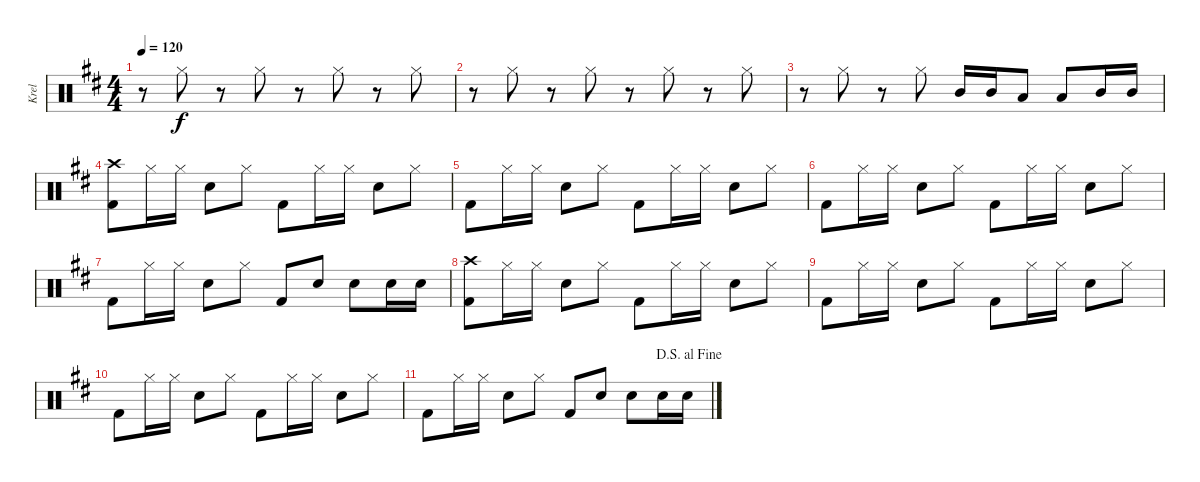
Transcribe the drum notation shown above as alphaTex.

\track ("Krel" "Krel") {instrument percussion}
\staff {score}
\articulation defaults
\ts (4 4)
\tempo 120
\clef neutral
\ks d
r.8{dy f} "Hi-Hat (closed)".8 r.8 "Hi-Hat (closed)".8 r.8 "Hi-Hat (closed)".8 r.8 "Hi-Hat (closed)".8 |
r.8 "Hi-Hat (closed)".8 r.8 "Hi-Hat (closed)".8 r.8 "Hi-Hat (closed)".8 r.8 "Hi-Hat (closed)".8 |
r.8 "Hi-Hat (closed)".8 r.8 "Hi-Hat (closed)".8 "Mid Tom (hit)".16 "Mid Tom (hit)".16 "Low Tom (hit)".8 "Low Tom (hit)".8 "Mid Tom (hit)".16 "Mid Tom (hit)".16 |
("Crash high (hit)" "Kick (hit) 2").8 "Hi-Hat (closed)".16 "Hi-Hat (closed)".16 "Snare (hit) 2".8 "Hi-Hat (closed)".8 "Kick (hit) 2".8 "Hi-Hat (closed)".16 "Hi-Hat (closed)".16 "Snare (hit) 2".8 "Hi-Hat (closed)".8 |
"Kick (hit) 2".8 "Hi-Hat (closed)".16 "Hi-Hat (closed)".16 "Snare (hit) 2".8 "Hi-Hat (closed)".8 "Kick (hit) 2".8 "Hi-Hat (closed)".16 "Hi-Hat (closed)".16 "Snare (hit) 2".8 "Hi-Hat (closed)".8 |
"Kick (hit) 2".8 "Hi-Hat (closed)".16 "Hi-Hat (closed)".16 "Snare (hit) 2".8 "Hi-Hat (closed)".8 "Kick (hit) 2".8 "Hi-Hat (closed)".16 "Hi-Hat (closed)".16 "Snare (hit) 2".8 "Hi-Hat (closed)".8 |
"Kick (hit) 2".8 "Hi-Hat (closed)".16 "Hi-Hat (closed)".16 "Snare (hit) 2".8 "Hi-Hat (closed)".8 "Kick (hit) 2".8 "Snare (hit) 2".8 "Snare (hit) 2".8 "Snare (hit) 2".16 "Snare (hit) 2".16 |
("Crash high (hit)" "Kick (hit) 2").8 "Hi-Hat (closed)".16 "Hi-Hat (closed)".16 "Snare (hit) 2".8 "Hi-Hat (closed)".8 "Kick (hit) 2".8 "Hi-Hat (closed)".16 "Hi-Hat (closed)".16 "Snare (hit) 2".8 "Hi-Hat (closed)".8 |
"Kick (hit) 2".8 "Hi-Hat (closed)".16 "Hi-Hat (closed)".16 "Snare (hit) 2".8 "Hi-Hat (closed)".8 "Kick (hit) 2".8 "Hi-Hat (closed)".16 "Hi-Hat (closed)".16 "Snare (hit) 2".8 "Hi-Hat (closed)".8 |
"Kick (hit) 2".8 "Hi-Hat (closed)".16 "Hi-Hat (closed)".16 "Snare (hit) 2".8 "Hi-Hat (closed)".8 "Kick (hit) 2".8 "Hi-Hat (closed)".16 "Hi-Hat (closed)".16 "Snare (hit) 2".8 "Hi-Hat (closed)".8 |
\jump dalsegnoalfine "Kick (hit) 2".8 "Hi-Hat (closed)".16 "Hi-Hat (closed)".16 "Snare (hit) 2".8 "Hi-Hat (closed)".8 "Kick (hit) 2".8 "Snare (hit) 2".8 "Snare (hit) 2".8 "Snare (hit) 2".16 "Snare (hit) 2".16
